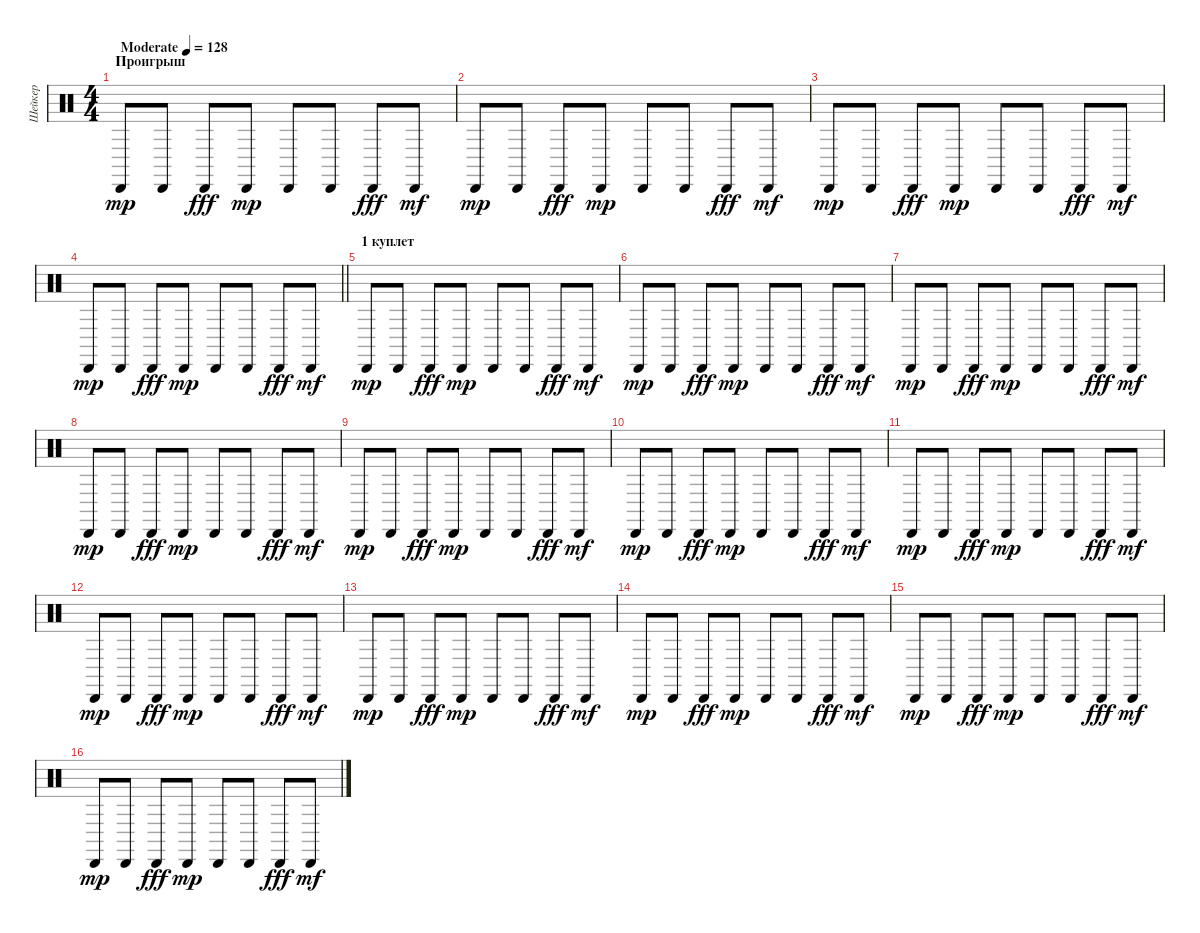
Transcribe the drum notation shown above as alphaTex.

\track ("Шейкер" "Шейкер") {instrument percussion}
\staff {score}
\articulation defaults
\ts (4 4)
\section ("" "Проигрыш")
\tempo (128 "Moderate")
\clef neutral
\ks c "Cabasa (hit)".8{dy mp} "Cabasa (hit)".8 "Cabasa (hit)".8{dy fff} "Cabasa (hit)".8{dy mp} "Cabasa (hit)".8 "Cabasa (hit)".8 "Cabasa (hit)".8{dy fff} "Cabasa (hit)".8{dy mf}
|
"Cabasa (hit)".8{dy mp} "Cabasa (hit)".8 "Cabasa (hit)".8{dy fff} "Cabasa (hit)".8{dy mp} "Cabasa (hit)".8 "Cabasa (hit)".8 "Cabasa (hit)".8{dy fff} "Cabasa (hit)".8{dy mf} |
"Cabasa (hit)".8{dy mp} "Cabasa (hit)".8 "Cabasa (hit)".8{dy fff} "Cabasa (hit)".8{dy mp} "Cabasa (hit)".8 "Cabasa (hit)".8 "Cabasa (hit)".8{dy fff} "Cabasa (hit)".8{dy mf} |
\barLineRight lightlight "Cabasa (hit)".8{dy mp} "Cabasa (hit)".8 "Cabasa (hit)".8{dy fff} "Cabasa (hit)".8{dy mp} "Cabasa (hit)".8 "Cabasa (hit)".8 "Cabasa (hit)".8{dy fff} "Cabasa (hit)".8{dy mf}
|
\section ("" "1 куплет")
"Cabasa (hit)".8{dy mp} "Cabasa (hit)".8 "Cabasa (hit)".8{dy fff} "Cabasa (hit)".8{dy mp} "Cabasa (hit)".8 "Cabasa (hit)".8 "Cabasa (hit)".8{dy fff} "Cabasa (hit)".8{dy mf} |
"Cabasa (hit)".8{dy mp} "Cabasa (hit)".8 "Cabasa (hit)".8{dy fff} "Cabasa (hit)".8{dy mp} "Cabasa (hit)".8 "Cabasa (hit)".8 "Cabasa (hit)".8{dy fff} "Cabasa (hit)".8{dy mf} |
"Cabasa (hit)".8{dy mp} "Cabasa (hit)".8 "Cabasa (hit)".8{dy fff} "Cabasa (hit)".8{dy mp} "Cabasa (hit)".8 "Cabasa (hit)".8 "Cabasa (hit)".8{dy fff} "Cabasa (hit)".8{dy mf} |
"Cabasa (hit)".8{dy mp} "Cabasa (hit)".8 "Cabasa (hit)".8{dy fff} "Cabasa (hit)".8{dy mp} "Cabasa (hit)".8 "Cabasa (hit)".8 "Cabasa (hit)".8{dy fff} "Cabasa (hit)".8{dy mf} |
"Cabasa (hit)".8{dy mp} "Cabasa (hit)".8 "Cabasa (hit)".8{dy fff} "Cabasa (hit)".8{dy mp} "Cabasa (hit)".8 "Cabasa (hit)".8 "Cabasa (hit)".8{dy fff} "Cabasa (hit)".8{dy mf} |
"Cabasa (hit)".8{dy mp} "Cabasa (hit)".8 "Cabasa (hit)".8{dy fff} "Cabasa (hit)".8{dy mp} "Cabasa (hit)".8 "Cabasa (hit)".8 "Cabasa (hit)".8{dy fff} "Cabasa (hit)".8{dy mf} |
"Cabasa (hit)".8{dy mp} "Cabasa (hit)".8 "Cabasa (hit)".8{dy fff} "Cabasa (hit)".8{dy mp} "Cabasa (hit)".8 "Cabasa (hit)".8 "Cabasa (hit)".8{dy fff} "Cabasa (hit)".8{dy mf} |
"Cabasa (hit)".8{dy mp} "Cabasa (hit)".8 "Cabasa (hit)".8{dy fff} "Cabasa (hit)".8{dy mp} "Cabasa (hit)".8 "Cabasa (hit)".8 "Cabasa (hit)".8{dy fff} "Cabasa (hit)".8{dy mf} |
"Cabasa (hit)".8{dy mp} "Cabasa (hit)".8 "Cabasa (hit)".8{dy fff} "Cabasa (hit)".8{dy mp} "Cabasa (hit)".8 "Cabasa (hit)".8 "Cabasa (hit)".8{dy fff} "Cabasa (hit)".8{dy mf} |
"Cabasa (hit)".8{dy mp} "Cabasa (hit)".8 "Cabasa (hit)".8{dy fff} "Cabasa (hit)".8{dy mp} "Cabasa (hit)".8 "Cabasa (hit)".8 "Cabasa (hit)".8{dy fff} "Cabasa (hit)".8{dy mf} |
"Cabasa (hit)".8{dy mp} "Cabasa (hit)".8 "Cabasa (hit)".8{dy fff} "Cabasa (hit)".8{dy mp} "Cabasa (hit)".8 "Cabasa (hit)".8 "Cabasa (hit)".8{dy fff} "Cabasa (hit)".8{dy mf} |
"Cabasa (hit)".8{dy mp} "Cabasa (hit)".8 "Cabasa (hit)".8{dy fff} "Cabasa (hit)".8{dy mp} "Cabasa (hit)".8 "Cabasa (hit)".8 "Cabasa (hit)".8{dy fff} "Cabasa (hit)".8{dy mf}
